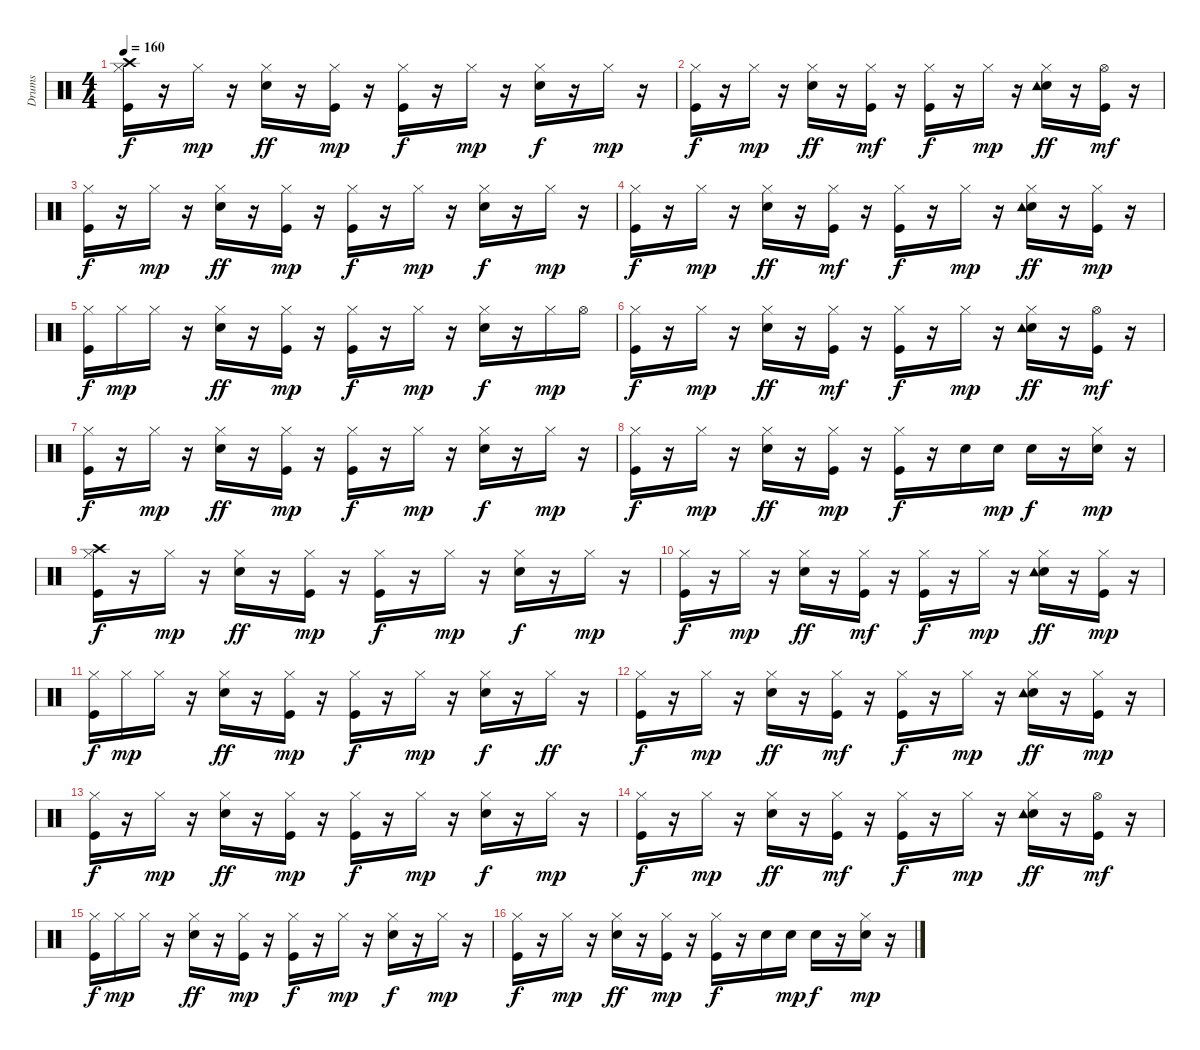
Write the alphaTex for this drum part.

\track ("Drums   " "Drums   ") {instrument percussion}
\staff {score}
\articulation defaults
\ts (4 4)
\tempo 160
\clef neutral
\ks c
("Kick (hit)" "Hi-Hat (closed)" "Crash high (hit)").16{dy f} r.16 "Hi-Hat (closed)".16{dy mp} r.16 ("Snare (hit) 2" "Hi-Hat (closed)").16{dy ff} r.16 ("Kick (hit)" "Hi-Hat (closed)").16{dy mp} r.16 ("Kick (hit)" "Hi-Hat (closed)").16{dy f} r.16 "Hi-Hat (closed)".16{dy mp} r.16 ("Snare (hit) 2" "Hi-Hat (closed)").16{dy f} r.16 "Hi-Hat (closed)".16{dy mp} r.16 |
("Kick (hit)" "Hi-Hat (closed)").16{dy f} r.16 "Hi-Hat (closed)".16{dy mp} r.16 ("Snare (hit) 2" "Hi-Hat (closed)").16{dy ff} r.16 ("Kick (hit)" "Hi-Hat (closed)").16{dy mf} r.16 ("Kick (hit)" "Hi-Hat (closed)").16{dy f} r.16 "Hi-Hat (closed)".16{dy mp} r.16 ("Snare (hit) 2" "Hi-Hat (closed)" "Tambourine (hit)").16{dy ff} r.16 ("Kick (hit)" "Hi-Hat (open)").16{dy mf} r.16 |
("Kick (hit)" "Hi-Hat (closed)").16{dy f} r.16 "Hi-Hat (closed)".16{dy mp} r.16 ("Snare (hit) 2" "Hi-Hat (closed)").16{dy ff} r.16 ("Kick (hit)" "Hi-Hat (closed)").16{dy mp} r.16 ("Kick (hit)" "Hi-Hat (closed)").16{dy f} r.16 "Hi-Hat (closed)".16{dy mp} r.16 ("Snare (hit) 2" "Hi-Hat (closed)").16{dy f} r.16 "Hi-Hat (closed)".16{dy mp} r.16 |
("Kick (hit)" "Hi-Hat (closed)").16{dy f} r.16 "Hi-Hat (closed)".16{dy mp} r.16 ("Snare (hit) 2" "Hi-Hat (closed)").16{dy ff} r.16 ("Kick (hit)" "Hi-Hat (closed)").16{dy mf} r.16 ("Kick (hit)" "Hi-Hat (closed)").16{dy f} r.16 "Hi-Hat (closed)".16{dy mp} r.16 ("Snare (hit) 2" "Hi-Hat (closed)" "Tambourine (hit)").16{dy ff} r.16 ("Kick (hit)" "Hi-Hat (closed)").16{dy mp} r.16 |
("Kick (hit)" "Hi-Hat (closed)").16{dy f} "Hi-Hat (closed)".16{dy mp} "Hi-Hat (closed)".16 r.16 ("Snare (hit) 2" "Hi-Hat (closed)").16{dy ff} r.16 ("Kick (hit)" "Hi-Hat (closed)").16{dy mp} r.16 ("Kick (hit)" "Hi-Hat (closed)").16{dy f} r.16 "Hi-Hat (closed)".16{dy mp} r.16 ("Snare (hit) 2" "Hi-Hat (closed)").16{dy f} r.16 "Hi-Hat (closed)".16{dy mp} "Hi-Hat (open)".16 |
("Kick (hit)" "Hi-Hat (closed)").16{dy f} r.16 "Hi-Hat (closed)".16{dy mp} r.16 ("Snare (hit) 2" "Hi-Hat (closed)").16{dy ff} r.16 ("Kick (hit)" "Hi-Hat (closed)").16{dy mf} r.16 ("Kick (hit)" "Hi-Hat (closed)").16{dy f} r.16 "Hi-Hat (closed)".16{dy mp} r.16 ("Snare (hit) 2" "Hi-Hat (closed)" "Tambourine (hit)").16{dy ff} r.16 ("Kick (hit)" "Hi-Hat (open)").16{dy mf} r.16 |
("Kick (hit)" "Hi-Hat (closed)").16{dy f} r.16 "Hi-Hat (closed)".16{dy mp} r.16 ("Snare (hit) 2" "Hi-Hat (closed)").16{dy ff} r.16 ("Kick (hit)" "Hi-Hat (closed)").16{dy mp} r.16 ("Kick (hit)" "Hi-Hat (closed)").16{dy f} r.16 "Hi-Hat (closed)".16{dy mp} r.16 ("Snare (hit) 2" "Hi-Hat (closed)").16{dy f} r.16 "Hi-Hat (closed)".16{dy mp} r.16 |
("Kick (hit)" "Hi-Hat (closed)").16{dy f} r.16 "Hi-Hat (closed)".16{dy mp} r.16 ("Snare (hit) 2" "Hi-Hat (closed)").16{dy ff} r.16 ("Kick (hit)" "Hi-Hat (closed)").16{dy mp} r.16 ("Kick (hit)" "Hi-Hat (closed)").16{dy f} r.16 "Snare (hit) 2".16 "Snare (hit) 2".16{dy mp} "Snare (hit) 2".16{dy f} r.16 ("Snare (hit) 2" "Hi-Hat (closed)").16{dy mp} r.16 |
("Kick (hit)" "Hi-Hat (closed)" "Crash high (hit)").16{dy f} r.16 "Hi-Hat (closed)".16{dy mp} r.16 ("Snare (hit) 2" "Hi-Hat (closed)").16{dy ff} r.16 ("Kick (hit)" "Hi-Hat (closed)").16{dy mp} r.16 ("Kick (hit)" "Hi-Hat (closed)").16{dy f} r.16 "Hi-Hat (closed)".16{dy mp} r.16 ("Snare (hit) 2" "Hi-Hat (closed)").16{dy f} r.16 "Hi-Hat (closed)".16{dy mp} r.16 |
("Kick (hit)" "Hi-Hat (closed)").16{dy f} r.16 "Hi-Hat (closed)".16{dy mp} r.16 ("Snare (hit) 2" "Hi-Hat (closed)").16{dy ff} r.16 ("Kick (hit)" "Hi-Hat (closed)").16{dy mf} r.16 ("Kick (hit)" "Hi-Hat (closed)").16{dy f} r.16 "Hi-Hat (closed)".16{dy mp} r.16 ("Snare (hit) 2" "Hi-Hat (closed)" "Tambourine (hit)").16{dy ff} r.16 ("Kick (hit)" "Hi-Hat (closed)").16{dy mp} r.16 |
("Kick (hit)" "Hi-Hat (closed)").16{dy f} "Hi-Hat (closed)".16{dy mp} "Hi-Hat (closed)".16 r.16 ("Snare (hit) 2" "Hi-Hat (closed)").16{dy ff} r.16 ("Kick (hit)" "Hi-Hat (closed)").16{dy mp} r.16 ("Kick (hit)" "Hi-Hat (closed)").16{dy f} r.16 "Hi-Hat (closed)".16{dy mp} r.16 ("Snare (hit) 2" "Hi-Hat (closed)").16{dy f} r.16 "Hi-Hat (closed)".16{dy ff} r.16 |
("Kick (hit)" "Hi-Hat (closed)").16{dy f} r.16 "Hi-Hat (closed)".16{dy mp} r.16 ("Snare (hit) 2" "Hi-Hat (closed)").16{dy ff} r.16 ("Kick (hit)" "Hi-Hat (closed)").16{dy mf} r.16 ("Kick (hit)" "Hi-Hat (closed)").16{dy f} r.16 "Hi-Hat (closed)".16{dy mp} r.16 ("Snare (hit) 2" "Hi-Hat (closed)" "Tambourine (hit)").16{dy ff} r.16 ("Kick (hit)" "Hi-Hat (closed)").16{dy mp} r.16 |
("Kick (hit)" "Hi-Hat (closed)").16{dy f} r.16 "Hi-Hat (closed)".16{dy mp} r.16 ("Snare (hit) 2" "Hi-Hat (closed)").16{dy ff} r.16 ("Kick (hit)" "Hi-Hat (closed)").16{dy mp} r.16 ("Kick (hit)" "Hi-Hat (closed)").16{dy f} r.16 "Hi-Hat (closed)".16{dy mp} r.16 ("Snare (hit) 2" "Hi-Hat (closed)").16{dy f} r.16 "Hi-Hat (closed)".16{dy mp} r.16 |
("Kick (hit)" "Hi-Hat (closed)").16{dy f} r.16 "Hi-Hat (closed)".16{dy mp} r.16 ("Snare (hit) 2" "Hi-Hat (closed)").16{dy ff} r.16 ("Kick (hit)" "Hi-Hat (closed)").16{dy mf} r.16 ("Kick (hit)" "Hi-Hat (closed)").16{dy f} r.16 "Hi-Hat (closed)".16{dy mp} r.16 ("Snare (hit) 2" "Hi-Hat (closed)" "Tambourine (hit)").16{dy ff} r.16 ("Kick (hit)" "Hi-Hat (open)").16{dy mf} r.16 |
("Kick (hit)" "Hi-Hat (closed)").16{dy f} "Hi-Hat (closed)".16{dy mp} "Hi-Hat (closed)".16 r.16 ("Snare (hit) 2" "Hi-Hat (closed)").16{dy ff} r.16 ("Kick (hit)" "Hi-Hat (closed)").16{dy mp} r.16 ("Kick (hit)" "Hi-Hat (closed)").16{dy f} r.16 "Hi-Hat (closed)".16{dy mp} r.16 ("Snare (hit) 2" "Hi-Hat (closed)").16{dy f} r.16 "Hi-Hat (closed)".16{dy mp} r.16 |
("Kick (hit)" "Hi-Hat (closed)").16{dy f} r.16 "Hi-Hat (closed)".16{dy mp} r.16 ("Snare (hit) 2" "Hi-Hat (closed)").16{dy ff} r.16 ("Kick (hit)" "Hi-Hat (closed)").16{dy mp} r.16 ("Kick (hit)" "Hi-Hat (closed)").16{dy f} r.16 "Snare (hit) 2".16 "Snare (hit) 2".16{dy mp} "Snare (hit) 2".16{dy f} r.16 ("Snare (hit) 2" "Hi-Hat (closed)").16{dy mp} r.16
